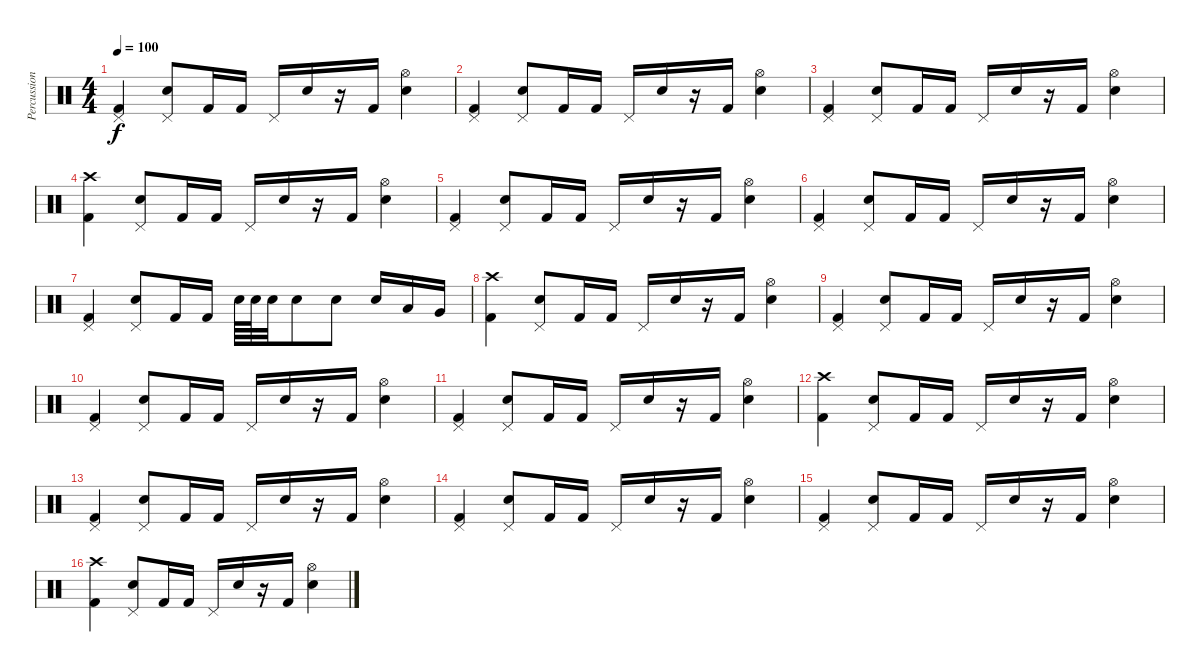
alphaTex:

\track ("Percussion" "Percussion") {instrument percussion}
\staff {score}
\articulation defaults
\ts (4 4)
\tempo 100
\clef neutral
\ks c
("Pedal Hi-Hat (hit)" "Kick (hit) 2").4{dy f} ("Pedal Hi-Hat (hit)" "Electric Snare (hit)").8 "Kick (hit) 2".16 "Kick (hit) 2".16 "Pedal Hi-Hat (hit)".16 "Electric Snare (hit)".16 r.16 "Kick (hit) 2".16 ("Hi-Hat (open)" "Electric Snare (hit)").4 |
("Pedal Hi-Hat (hit)" "Kick (hit) 2").4 ("Pedal Hi-Hat (hit)" "Electric Snare (hit)").8 "Kick (hit) 2".16 "Kick (hit) 2".16 "Pedal Hi-Hat (hit)".16 "Electric Snare (hit)".16 r.16 "Kick (hit) 2".16 ("Hi-Hat (open)" "Electric Snare (hit)").4 |
("Pedal Hi-Hat (hit)" "Kick (hit) 2").4 ("Pedal Hi-Hat (hit)" "Electric Snare (hit)").8 "Kick (hit) 2".16 "Kick (hit) 2".16 "Pedal Hi-Hat (hit)".16 "Electric Snare (hit)".16 r.16 "Kick (hit) 2".16 ("Hi-Hat (open)" "Electric Snare (hit)").4 |
("Crash high (hit)" "Kick (hit) 2").4 ("Pedal Hi-Hat (hit)" "Electric Snare (hit)").8 "Kick (hit) 2".16 "Kick (hit) 2".16 "Pedal Hi-Hat (hit)".16 "Electric Snare (hit)".16 r.16 "Kick (hit) 2".16 ("Hi-Hat (open)" "Electric Snare (hit)").4 |
("Pedal Hi-Hat (hit)" "Kick (hit) 2").4 ("Pedal Hi-Hat (hit)" "Electric Snare (hit)").8 "Kick (hit) 2".16 "Kick (hit) 2".16 "Pedal Hi-Hat (hit)".16 "Electric Snare (hit)".16 r.16 "Kick (hit) 2".16 ("Hi-Hat (open)" "Electric Snare (hit)").4 |
("Pedal Hi-Hat (hit)" "Kick (hit) 2").4 ("Pedal Hi-Hat (hit)" "Electric Snare (hit)").8 "Kick (hit) 2".16 "Kick (hit) 2".16 "Pedal Hi-Hat (hit)".16 "Electric Snare (hit)".16 r.16 "Kick (hit) 2".16 ("Hi-Hat (open)" "Electric Snare (hit)").4 |
("Pedal Hi-Hat (hit)" "Kick (hit) 2").4 ("Pedal Hi-Hat (hit)" "Electric Snare (hit)").8 "Kick (hit) 2".16 "Kick (hit) 2".16 "Electric Snare (hit)".64 "Electric Snare (hit)".64 "Electric Snare (hit)".32 "Electric Snare (hit)".8 "Electric Snare (hit)".8 "Electric Snare (hit)".16 "Low Tom (hit)".16 "Very Low Tom (hit)".16 |
("Crash high (hit)" "Kick (hit) 2").4 ("Pedal Hi-Hat (hit)" "Electric Snare (hit)").8 "Kick (hit) 2".16 "Kick (hit) 2".16 "Pedal Hi-Hat (hit)".16 "Electric Snare (hit)".16 r.16 "Kick (hit) 2".16 ("Hi-Hat (open)" "Electric Snare (hit)").4 |
("Pedal Hi-Hat (hit)" "Kick (hit) 2").4 ("Pedal Hi-Hat (hit)" "Electric Snare (hit)").8 "Kick (hit) 2".16 "Kick (hit) 2".16 "Pedal Hi-Hat (hit)".16 "Electric Snare (hit)".16 r.16 "Kick (hit) 2".16 ("Hi-Hat (open)" "Electric Snare (hit)").4 |
("Pedal Hi-Hat (hit)" "Kick (hit) 2").4 ("Pedal Hi-Hat (hit)" "Electric Snare (hit)").8 "Kick (hit) 2".16 "Kick (hit) 2".16 "Pedal Hi-Hat (hit)".16 "Electric Snare (hit)".16 r.16 "Kick (hit) 2".16 ("Hi-Hat (open)" "Electric Snare (hit)").4 |
("Pedal Hi-Hat (hit)" "Kick (hit) 2").4 ("Pedal Hi-Hat (hit)" "Electric Snare (hit)").8 "Kick (hit) 2".16 "Kick (hit) 2".16 "Pedal Hi-Hat (hit)".16 "Electric Snare (hit)".16 r.16 "Kick (hit) 2".16 ("Hi-Hat (open)" "Electric Snare (hit)").4 |
("Crash high (hit)" "Kick (hit) 2").4 ("Pedal Hi-Hat (hit)" "Electric Snare (hit)").8 "Kick (hit) 2".16 "Kick (hit) 2".16 "Pedal Hi-Hat (hit)".16 "Electric Snare (hit)".16 r.16 "Kick (hit) 2".16 ("Hi-Hat (open)" "Electric Snare (hit)").4 |
("Pedal Hi-Hat (hit)" "Kick (hit) 2").4 ("Pedal Hi-Hat (hit)" "Electric Snare (hit)").8 "Kick (hit) 2".16 "Kick (hit) 2".16 "Pedal Hi-Hat (hit)".16 "Electric Snare (hit)".16 r.16 "Kick (hit) 2".16 ("Hi-Hat (open)" "Electric Snare (hit)").4 |
("Pedal Hi-Hat (hit)" "Kick (hit) 2").4 ("Pedal Hi-Hat (hit)" "Electric Snare (hit)").8 "Kick (hit) 2".16 "Kick (hit) 2".16 "Pedal Hi-Hat (hit)".16 "Electric Snare (hit)".16 r.16 "Kick (hit) 2".16 ("Hi-Hat (open)" "Electric Snare (hit)").4 |
("Pedal Hi-Hat (hit)" "Kick (hit) 2").4 ("Pedal Hi-Hat (hit)" "Electric Snare (hit)").8 "Kick (hit) 2".16 "Kick (hit) 2".16 "Pedal Hi-Hat (hit)".16 "Electric Snare (hit)".16 r.16 "Kick (hit) 2".16 ("Hi-Hat (open)" "Electric Snare (hit)").4 |
("Crash high (hit)" "Kick (hit) 2").4 ("Pedal Hi-Hat (hit)" "Electric Snare (hit)").8 "Kick (hit) 2".16 "Kick (hit) 2".16 "Pedal Hi-Hat (hit)".16 "Electric Snare (hit)".16 r.16 "Kick (hit) 2".16 ("Hi-Hat (open)" "Electric Snare (hit)").4
